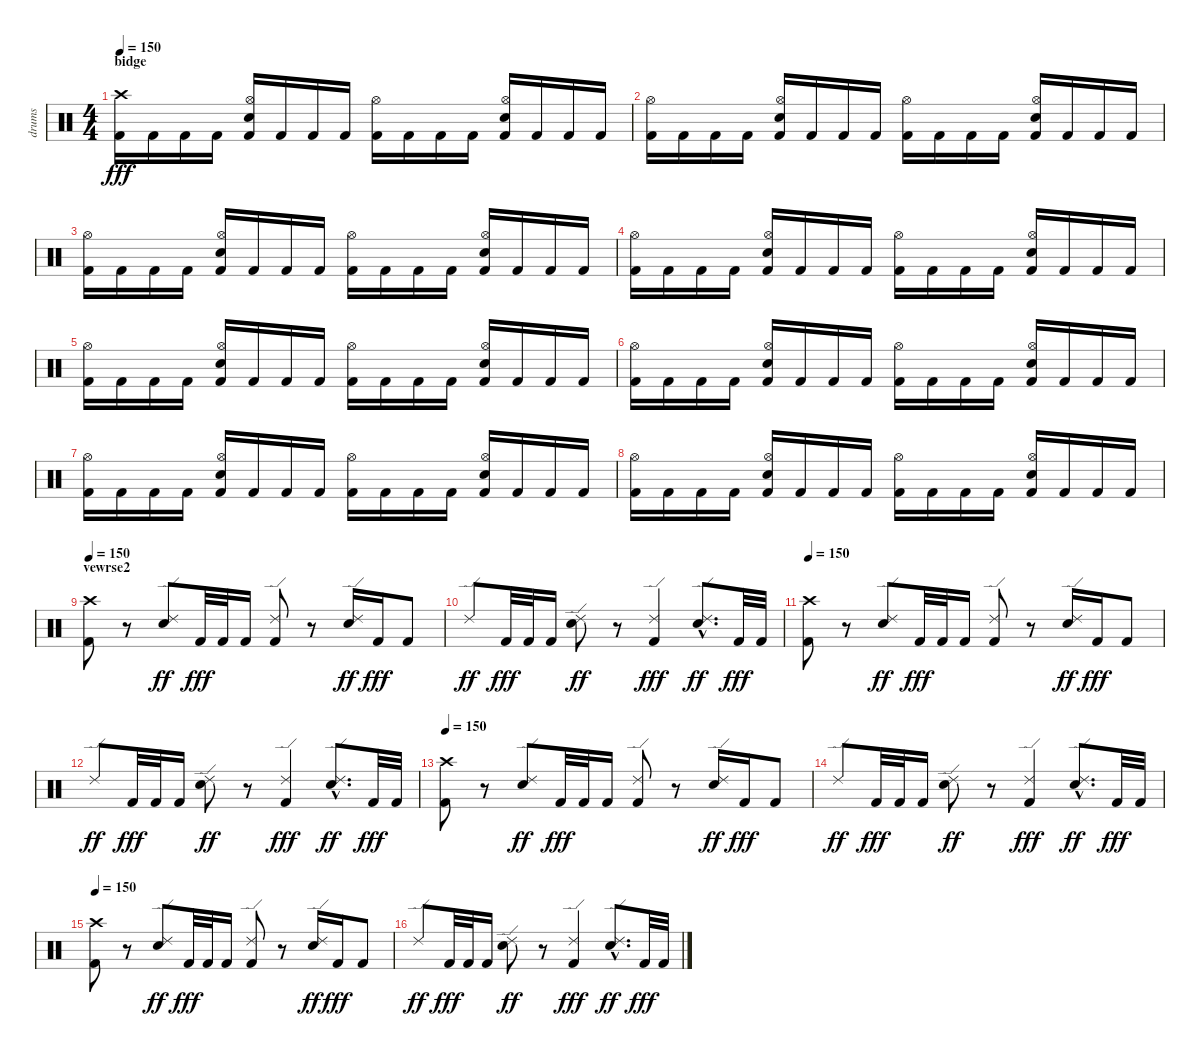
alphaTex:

\track ("drums" "drums") {instrument percussion}
\staff {score}
\articulation defaults
\ts (4 4)
\section ("" "bidge")
\tempo 150
\clef neutral
\ks c
("Crash high (hit)" "Kick (hit) 2").16{dy fff} "Kick (hit) 2".16 "Kick (hit) 2".16 "Kick (hit) 2".16 ("Hi-Hat (open)" "Snare (hit) 2" "Kick (hit) 2").16 "Kick (hit) 2".16 "Kick (hit) 2".16 "Kick (hit) 2".16 ("Hi-Hat (open)" "Kick (hit) 2").16 "Kick (hit) 2".16 "Kick (hit) 2".16 "Kick (hit) 2".16 ("Hi-Hat (open)" "Snare (hit) 2" "Kick (hit) 2").16 "Kick (hit) 2".16 "Kick (hit) 2".16 "Kick (hit) 2".16 |
("Hi-Hat (open)" "Kick (hit) 2").16 "Kick (hit) 2".16 "Kick (hit) 2".16 "Kick (hit) 2".16 ("Hi-Hat (open)" "Snare (hit) 2" "Kick (hit) 2").16 "Kick (hit) 2".16 "Kick (hit) 2".16 "Kick (hit) 2".16 ("Hi-Hat (open)" "Kick (hit) 2").16 "Kick (hit) 2".16 "Kick (hit) 2".16 "Kick (hit) 2".16 ("Hi-Hat (open)" "Snare (hit) 2" "Kick (hit) 2").16 "Kick (hit) 2".16 "Kick (hit) 2".16 "Kick (hit) 2".16 |
("Hi-Hat (open)" "Kick (hit) 2").16 "Kick (hit) 2".16 "Kick (hit) 2".16 "Kick (hit) 2".16 ("Hi-Hat (open)" "Snare (hit) 2" "Kick (hit) 2").16 "Kick (hit) 2".16 "Kick (hit) 2".16 "Kick (hit) 2".16 ("Hi-Hat (open)" "Kick (hit) 2").16 "Kick (hit) 2".16 "Kick (hit) 2".16 "Kick (hit) 2".16 ("Hi-Hat (open)" "Snare (hit) 2" "Kick (hit) 2").16 "Kick (hit) 2".16 "Kick (hit) 2".16 "Kick (hit) 2".16 |
("Hi-Hat (open)" "Kick (hit) 2").16 "Kick (hit) 2".16 "Kick (hit) 2".16 "Kick (hit) 2".16 ("Hi-Hat (open)" "Snare (hit) 2" "Kick (hit) 2").16 "Kick (hit) 2".16 "Kick (hit) 2".16 "Kick (hit) 2".16 ("Hi-Hat (open)" "Kick (hit) 2").16 "Kick (hit) 2".16 "Kick (hit) 2".16 "Kick (hit) 2".16 ("Hi-Hat (open)" "Snare (hit) 2" "Kick (hit) 2").16 "Kick (hit) 2".16 "Kick (hit) 2".16 "Kick (hit) 2".16 |
("Hi-Hat (open)" "Kick (hit) 2").16 "Kick (hit) 2".16 "Kick (hit) 2".16 "Kick (hit) 2".16 ("Hi-Hat (open)" "Snare (hit) 2" "Kick (hit) 2").16 "Kick (hit) 2".16 "Kick (hit) 2".16 "Kick (hit) 2".16 ("Hi-Hat (open)" "Kick (hit) 2").16 "Kick (hit) 2".16 "Kick (hit) 2".16 "Kick (hit) 2".16 ("Hi-Hat (open)" "Snare (hit) 2" "Kick (hit) 2").16 "Kick (hit) 2".16 "Kick (hit) 2".16 "Kick (hit) 2".16 |
("Hi-Hat (open)" "Kick (hit) 2").16 "Kick (hit) 2".16 "Kick (hit) 2".16 "Kick (hit) 2".16 ("Hi-Hat (open)" "Snare (hit) 2" "Kick (hit) 2").16 "Kick (hit) 2".16 "Kick (hit) 2".16 "Kick (hit) 2".16 ("Hi-Hat (open)" "Kick (hit) 2").16 "Kick (hit) 2".16 "Kick (hit) 2".16 "Kick (hit) 2".16 ("Hi-Hat (open)" "Snare (hit) 2" "Kick (hit) 2").16 "Kick (hit) 2".16 "Kick (hit) 2".16 "Kick (hit) 2".16 |
("Hi-Hat (open)" "Kick (hit) 2").16 "Kick (hit) 2".16 "Kick (hit) 2".16 "Kick (hit) 2".16 ("Hi-Hat (open)" "Snare (hit) 2" "Kick (hit) 2").16 "Kick (hit) 2".16 "Kick (hit) 2".16 "Kick (hit) 2".16 ("Hi-Hat (open)" "Kick (hit) 2").16 "Kick (hit) 2".16 "Kick (hit) 2".16 "Kick (hit) 2".16 ("Hi-Hat (open)" "Snare (hit) 2" "Kick (hit) 2").16 "Kick (hit) 2".16 "Kick (hit) 2".16 "Kick (hit) 2".16 |
("Hi-Hat (open)" "Kick (hit) 2").16 "Kick (hit) 2".16 "Kick (hit) 2".16 "Kick (hit) 2".16 ("Hi-Hat (open)" "Snare (hit) 2" "Kick (hit) 2").16 "Kick (hit) 2".16 "Kick (hit) 2".16 "Kick (hit) 2".16 ("Hi-Hat (open)" "Kick (hit) 2").16 "Kick (hit) 2".16 "Kick (hit) 2".16 "Kick (hit) 2".16 ("Hi-Hat (open)" "Snare (hit) 2" "Kick (hit) 2").16 "Kick (hit) 2".16 "Kick (hit) 2".16 "Kick (hit) 2".16 |
\section ("" "vewrse2")
\tempo 150
("Crash high (hit)" "Kick (hit) 2").8 r.8 ("Ride (edge) 2" "Snare (hit) 2").8{dy ff} "Kick (hit) 2".32{dy fff} "Kick (hit) 2".32 "Kick (hit) 2".16 ("Ride (edge) 2" "Kick (hit) 2").8 r.8 ("Ride (edge) 2" "Snare (hit) 2").16{dy ff} "Kick (hit) 2".16{dy fff} "Kick (hit) 2".8 |
"Ride (edge) 2".8{dy ff} "Kick (hit) 2".32{dy fff} "Kick (hit) 2".32 "Kick (hit) 2".16 ("Ride (edge) 2" "Snare (hit) 2").8{dy ff} r.8 ("Ride (edge) 2" "Kick (hit) 2").4{dy fff} ("Ride (edge) 2"{hac} "Snare (hit) 2"{hac}).8{d dy ff} "Kick (hit) 2".32{dy fff} "Kick (hit) 2".32 |
\tempo 150
("Crash high (hit)" "Kick (hit) 2").8 r.8 ("Ride (edge) 2" "Snare (hit) 2").8{dy ff} "Kick (hit) 2".32{dy fff} "Kick (hit) 2".32 "Kick (hit) 2".16 ("Ride (edge) 2" "Kick (hit) 2").8 r.8 ("Ride (edge) 2" "Snare (hit) 2").16{dy ff} "Kick (hit) 2".16{dy fff} "Kick (hit) 2".8 |
"Ride (edge) 2".8{dy ff} "Kick (hit) 2".32{dy fff} "Kick (hit) 2".32 "Kick (hit) 2".16 ("Ride (edge) 2" "Snare (hit) 2").8{dy ff} r.8 ("Ride (edge) 2" "Kick (hit) 2").4{dy fff} ("Ride (edge) 2"{hac} "Snare (hit) 2"{hac}).8{d dy ff} "Kick (hit) 2".32{dy fff} "Kick (hit) 2".32 |
\tempo 150
("Crash high (hit)" "Kick (hit) 2").8 r.8 ("Ride (edge) 2" "Snare (hit) 2").8{dy ff} "Kick (hit) 2".32{dy fff} "Kick (hit) 2".32 "Kick (hit) 2".16 ("Ride (edge) 2" "Kick (hit) 2").8 r.8 ("Ride (edge) 2" "Snare (hit) 2").16{dy ff} "Kick (hit) 2".16{dy fff} "Kick (hit) 2".8 |
"Ride (edge) 2".8{dy ff} "Kick (hit) 2".32{dy fff} "Kick (hit) 2".32 "Kick (hit) 2".16 ("Ride (edge) 2" "Snare (hit) 2").8{dy ff} r.8 ("Ride (edge) 2" "Kick (hit) 2").4{dy fff} ("Ride (edge) 2"{hac} "Snare (hit) 2"{hac}).8{d dy ff} "Kick (hit) 2".32{dy fff} "Kick (hit) 2".32 |
\tempo 150
("Crash high (hit)" "Kick (hit) 2").8 r.8 ("Ride (edge) 2" "Snare (hit) 2").8{dy ff} "Kick (hit) 2".32{dy fff} "Kick (hit) 2".32 "Kick (hit) 2".16 ("Ride (edge) 2" "Kick (hit) 2").8 r.8 ("Ride (edge) 2" "Snare (hit) 2").16{dy ff} "Kick (hit) 2".16{dy fff} "Kick (hit) 2".8 |
"Ride (edge) 2".8{dy ff} "Kick (hit) 2".32{dy fff} "Kick (hit) 2".32 "Kick (hit) 2".16 ("Ride (edge) 2" "Snare (hit) 2").8{dy ff} r.8 ("Ride (edge) 2" "Kick (hit) 2").4{dy fff} ("Ride (edge) 2"{hac} "Snare (hit) 2"{hac}).8{d dy ff} "Kick (hit) 2".32{dy fff} "Kick (hit) 2".32
